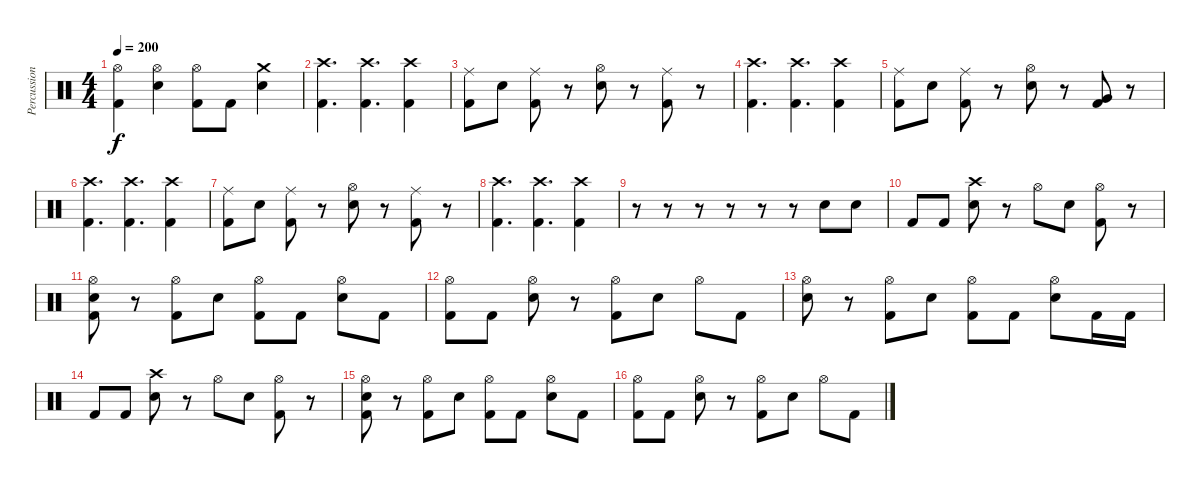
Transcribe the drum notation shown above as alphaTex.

\track ("Percussion" "Percussion") {instrument percussion}
\staff {score}
\articulation defaults
\ts (4 4)
\tempo 200
\clef neutral
\ks c
("Hi-Hat (open)" "Kick (hit) 2").4{dy f} ("Hi-Hat (open)" "Electric Snare (hit)").4 ("Hi-Hat (open)" "Kick (hit) 2").8 "Kick (hit) 2".8 ("Crash medium (hit)" "Electric Snare (hit)").4 |
("Crash high (hit)" "Kick (hit) 2").4{d} ("Crash high (hit)" "Kick (hit) 2").4{d} ("Crash high (hit)" "Kick (hit) 2").4 |
("Ride (middle)" "Kick (hit) 2").8 "Electric Snare (hit)".8 ("Ride (middle)" "Kick (hit) 2").8 r.8 ("Hi-Hat (open)" "Electric Snare (hit)").8 r.8 ("Ride (middle)" "Kick (hit) 2").8 r.8 |
("Crash high (hit)" "Kick (hit) 2").4{d} ("Crash high (hit)" "Kick (hit) 2").4{d} ("Crash high (hit)" "Kick (hit) 2").4 |
("Ride (middle)" "Kick (hit) 2").8 "Electric Snare (hit)".8 ("Ride (middle)" "Kick (hit) 2").8 r.8 ("Hi-Hat (open)" "Electric Snare (hit)").8 r.8 ("Very Low Tom (hit)" "Kick (hit) 2").8 r.8 |
("Crash high (hit)" "Kick (hit) 2").4{d} ("Crash high (hit)" "Kick (hit) 2").4{d} ("Crash high (hit)" "Kick (hit) 2").4 |
("Ride (middle)" "Kick (hit) 2").8 "Electric Snare (hit)".8 ("Ride (middle)" "Kick (hit) 2").8 r.8 ("Hi-Hat (open)" "Electric Snare (hit)").8 r.8 ("Ride (middle)" "Kick (hit) 2").8 r.8 |
("Crash high (hit)" "Kick (hit) 2").4{d} ("Crash high (hit)" "Kick (hit) 2").4{d} ("Crash high (hit)" "Kick (hit) 2").4 |
r.8 r.8 r.8 r.8 r.8 r.8 "Electric Snare (hit)".8 "Electric Snare (hit)".8 |
"Kick (hit) 2".8 "Kick (hit) 2".8 ("Crash high (hit)" "Electric Snare (hit)").8 r.8 "Hi-Hat (open)".8 "Electric Snare (hit)".8 ("Hi-Hat (open)" "Kick (hit) 2").8 r.8 |
("Hi-Hat (open)" "Electric Snare (hit)" "Kick (hit) 2").8 r.8 ("Hi-Hat (open)" "Kick (hit) 2").8 "Electric Snare (hit)".8 ("Hi-Hat (open)" "Kick (hit) 2").8 "Kick (hit) 2".8 ("Hi-Hat (open)" "Electric Snare (hit)").8 "Kick (hit) 2".8 |
("Hi-Hat (open)" "Kick (hit) 2").8 "Kick (hit) 2".8 ("Hi-Hat (open)" "Electric Snare (hit)").8 r.8 ("Hi-Hat (open)" "Kick (hit) 2").8 "Electric Snare (hit)".8 "Hi-Hat (open)".8 "Kick (hit) 2".8 |
("Hi-Hat (open)" "Electric Snare (hit)").8 r.8 ("Hi-Hat (open)" "Kick (hit) 2").8 "Electric Snare (hit)".8 ("Hi-Hat (open)" "Kick (hit) 2").8 "Kick (hit) 2".8 ("Hi-Hat (open)" "Electric Snare (hit)").8 "Kick (hit) 2".16 "Kick (hit) 2".16 |
"Kick (hit) 2".8 "Kick (hit) 2".8 ("Crash high (hit)" "Electric Snare (hit)").8 r.8 "Hi-Hat (open)".8 "Electric Snare (hit)".8 ("Hi-Hat (open)" "Kick (hit) 2").8 r.8 |
("Hi-Hat (open)" "Electric Snare (hit)" "Kick (hit) 2").8 r.8 ("Hi-Hat (open)" "Kick (hit) 2").8 "Electric Snare (hit)".8 ("Hi-Hat (open)" "Kick (hit) 2").8 "Kick (hit) 2".8 ("Hi-Hat (open)" "Electric Snare (hit)").8 "Kick (hit) 2".8 |
("Hi-Hat (open)" "Kick (hit) 2").8 "Kick (hit) 2".8 ("Hi-Hat (open)" "Electric Snare (hit)").8 r.8 ("Hi-Hat (open)" "Kick (hit) 2").8 "Electric Snare (hit)".8 "Hi-Hat (open)".8 "Kick (hit) 2".8
